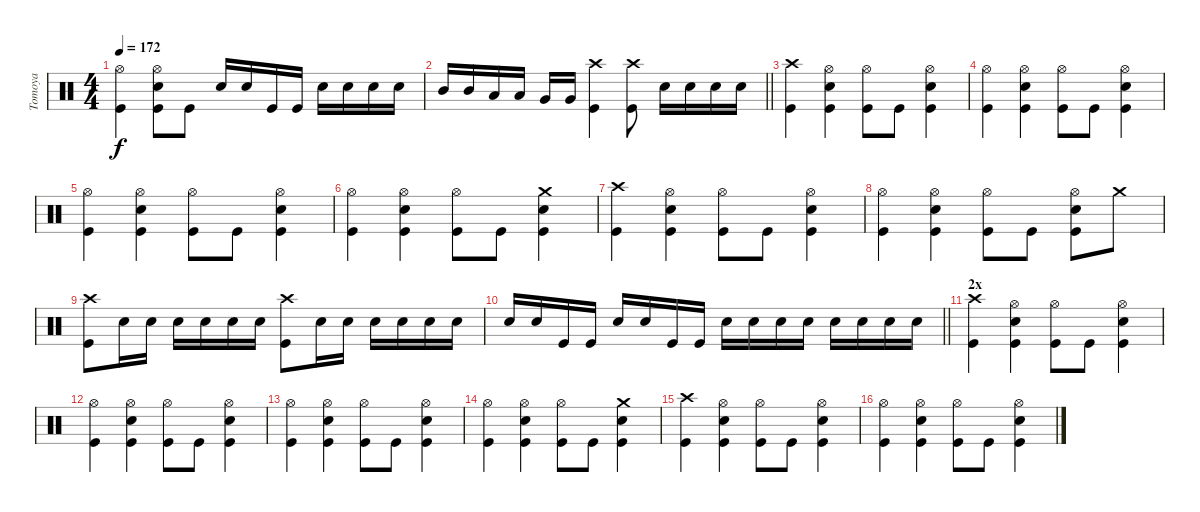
\track ("Tomoya" "Tomoya") {instrument percussion}
\staff {score}
\articulation defaults
\ts (4 4)
\tempo 172
\clef neutral
\ks c
("Hi-Hat (open)" "Kick (hit)").4{dy f} ("Snare (hit) 2" "Hi-Hat (open)" "Kick (hit)").8 "Kick (hit)".8 "Snare (hit) 2".16 "Snare (hit) 2".16 "Kick (hit)".16 "Kick (hit)".16 "Snare (hit) 2".16 "Snare (hit) 2".16 "Snare (hit) 2".16 "Snare (hit) 2".16 |
\barLineRight lightlight "Mid Tom (hit)".16 "Mid Tom (hit)".16 "Low Tom (hit)".16 "Low Tom (hit)".16 "Very Low Tom (hit)".16 "Very Low Tom (hit)".16
("Crash high (hit)" "Kick (hit)").4 ("Crash high (hit)" "Kick (hit)").8 "Snare (hit) 2".16 "Snare (hit) 2".16 "Snare (hit) 2".16 "Snare (hit) 2".16 |
("Crash high (hit)" "Kick (hit)").4 ("Snare (hit) 2" "Hi-Hat (open)" "Kick (hit)").4 ("Hi-Hat (open)" "Kick (hit)").8 "Kick (hit)".8 ("Snare (hit) 2" "Hi-Hat (open)" "Kick (hit)").4 |
("Hi-Hat (open)" "Kick (hit)").4 ("Snare (hit) 2" "Hi-Hat (open)" "Kick (hit)").4 ("Hi-Hat (open)" "Kick (hit)").8 "Kick (hit)".8 ("Snare (hit) 2" "Hi-Hat (open)" "Kick (hit)").4 |
("Hi-Hat (open)" "Kick (hit)").4 ("Snare (hit) 2" "Hi-Hat (open)" "Kick (hit)").4 ("Hi-Hat (open)" "Kick (hit)").8 "Kick (hit)".8 ("Snare (hit) 2" "Hi-Hat (open)" "Kick (hit)").4 |
("Hi-Hat (open)" "Kick (hit)").4 ("Snare (hit) 2" "Hi-Hat (open)" "Kick (hit)").4 ("Hi-Hat (open)" "Kick (hit)").8 "Kick (hit)".8 ("Snare (hit) 2" "Crash medium (hit)" "Kick (hit)").4 |
("Crash high (hit)" "Kick (hit)").4 ("Snare (hit) 2" "Hi-Hat (open)" "Kick (hit)").4 ("Hi-Hat (open)" "Kick (hit)").8 "Kick (hit)".8 ("Snare (hit) 2" "Hi-Hat (open)" "Kick (hit)").4 |
("Hi-Hat (open)" "Kick (hit)").4 ("Snare (hit) 2" "Hi-Hat (open)" "Kick (hit)").4 ("Hi-Hat (open)" "Kick (hit)").8 "Kick (hit)".8 ("Snare (hit) 2" "Hi-Hat (open)" "Kick (hit)").8 "Crash medium (hit)".8 |
("Crash high (hit)" "Kick (hit)").8 "Snare (hit) 2".16 "Snare (hit) 2".16 "Snare (hit) 2".16 "Snare (hit) 2".16 "Snare (hit) 2".16 "Snare (hit) 2".16 ("Crash high (hit)" "Kick (hit)").8 "Snare (hit) 2".16 "Snare (hit) 2".16 "Snare (hit) 2".16 "Snare (hit) 2".16 "Snare (hit) 2".16 "Snare (hit) 2".16 |
\barLineRight lightlight "Snare (hit) 2".16 "Snare (hit) 2".16 "Kick (hit)".16 "Kick (hit)".16 "Snare (hit) 2".16 "Snare (hit) 2".16 "Kick (hit)".16 "Kick (hit)".16 "Snare (hit) 2".16 "Snare (hit) 2".16 "Snare (hit) 2".16 "Snare (hit) 2".16 "Snare (hit) 2".16 "Snare (hit) 2".16 "Snare (hit) 2".16 "Snare (hit) 2".16
|
\section ("" "2x")
("Crash high (hit)" "Kick (hit)").4 ("Snare (hit) 2" "Hi-Hat (open)" "Kick (hit)").4 ("Hi-Hat (open)" "Kick (hit)").8 "Kick (hit)".8 ("Snare (hit) 2" "Hi-Hat (open)" "Kick (hit)").4 |
("Hi-Hat (open)" "Kick (hit)").4 ("Snare (hit) 2" "Hi-Hat (open)" "Kick (hit)").4 ("Hi-Hat (open)" "Kick (hit)").8 "Kick (hit)".8 ("Snare (hit) 2" "Hi-Hat (open)" "Kick (hit)").4 |
("Hi-Hat (open)" "Kick (hit)").4 ("Snare (hit) 2" "Hi-Hat (open)" "Kick (hit)").4 ("Hi-Hat (open)" "Kick (hit)").8 "Kick (hit)".8 ("Snare (hit) 2" "Hi-Hat (open)" "Kick (hit)").4 |
("Hi-Hat (open)" "Kick (hit)").4 ("Snare (hit) 2" "Hi-Hat (open)" "Kick (hit)").4 ("Hi-Hat (open)" "Kick (hit)").8 "Kick (hit)".8 ("Snare (hit) 2" "Crash medium (hit)" "Kick (hit)").4 |
("Crash high (hit)" "Kick (hit)").4 ("Snare (hit) 2" "Hi-Hat (open)" "Kick (hit)").4 ("Hi-Hat (open)" "Kick (hit)").8 "Kick (hit)".8 ("Snare (hit) 2" "Hi-Hat (open)" "Kick (hit)").4 |
("Hi-Hat (open)" "Kick (hit)").4 ("Snare (hit) 2" "Hi-Hat (open)" "Kick (hit)").4 ("Hi-Hat (open)" "Kick (hit)").8 "Kick (hit)".8 ("Snare (hit) 2" "Hi-Hat (open)" "Kick (hit)").4
